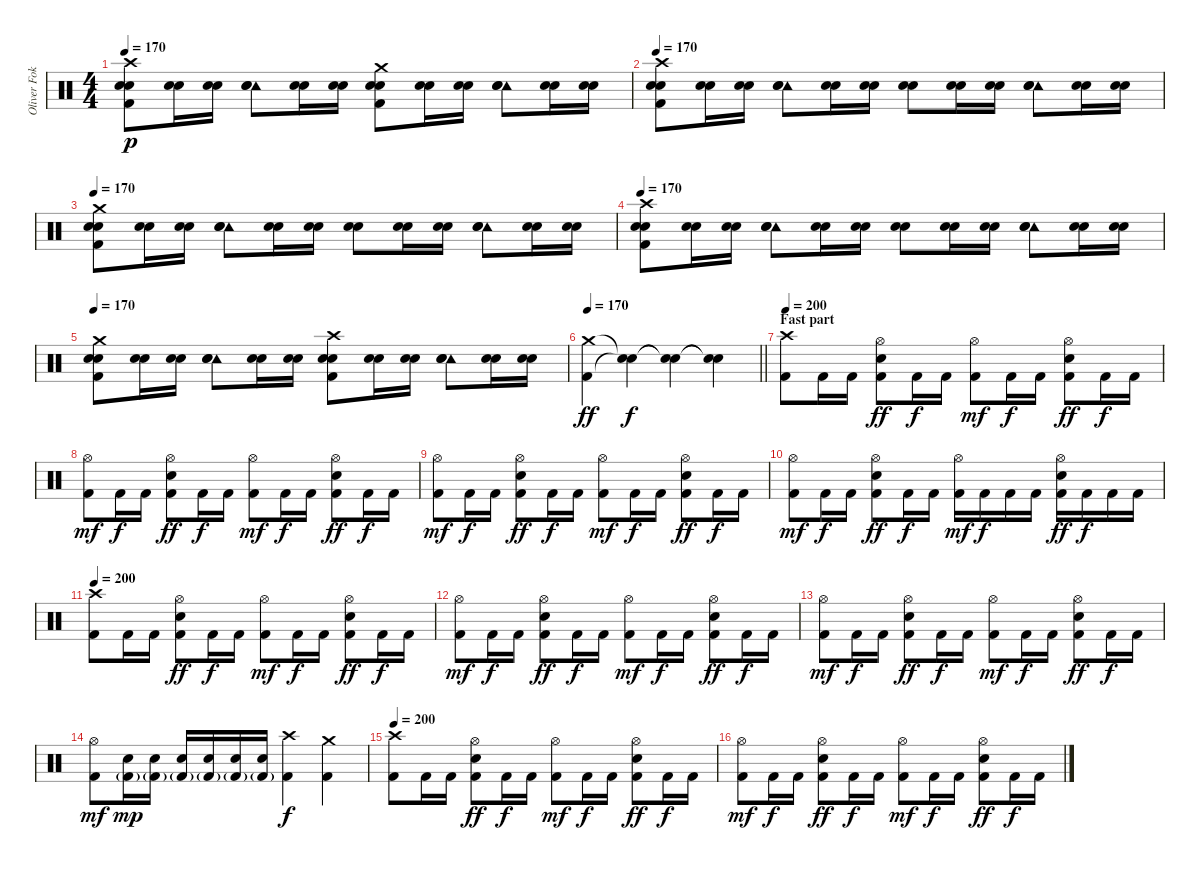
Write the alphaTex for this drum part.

\track ("Oliver Fokin" "Oliver Fok") {instrument percussion}
\staff {score}
\articulation defaults
\ts (4 4)
\tempo 170
\clef neutral
\ks c
("Crash high (hit)" "Kick (hit) 2" "Electric Snare (hit)" "Electric Snare (hit)").8{dy p} ("Electric Snare (hit)" "Electric Snare (hit)").16 ("Electric Snare (hit)" "Electric Snare (hit)").16 ("Tambourine (hit)" "Electric Snare (hit)" "Electric Snare (hit)").8 ("Electric Snare (hit)" "Electric Snare (hit)").16 ("Electric Snare (hit)" "Electric Snare (hit)").16 ("Crash medium (hit)" "Kick (hit) 2" "Electric Snare (hit)" "Electric Snare (hit)").8 ("Electric Snare (hit)" "Electric Snare (hit)").16 ("Electric Snare (hit)" "Electric Snare (hit)").16 ("Tambourine (hit)" "Electric Snare (hit)" "Electric Snare (hit)").8 ("Electric Snare (hit)" "Electric Snare (hit)").16 ("Electric Snare (hit)" "Electric Snare (hit)").16 |
\tempo 170
("Crash high (hit)" "Kick (hit) 2" "Electric Snare (hit)" "Electric Snare (hit)").8 ("Electric Snare (hit)" "Electric Snare (hit)").16 ("Electric Snare (hit)" "Electric Snare (hit)").16 ("Tambourine (hit)" "Electric Snare (hit)" "Electric Snare (hit)").8 ("Electric Snare (hit)" "Electric Snare (hit)").16 ("Electric Snare (hit)" "Electric Snare (hit)").16 ("Electric Snare (hit)" "Electric Snare (hit)").8 ("Electric Snare (hit)" "Electric Snare (hit)").16 ("Electric Snare (hit)" "Electric Snare (hit)").16 ("Tambourine (hit)" "Electric Snare (hit)" "Electric Snare (hit)").8 ("Electric Snare (hit)" "Electric Snare (hit)").16 ("Electric Snare (hit)" "Electric Snare (hit)").16 |
\tempo 170
("Crash medium (hit)" "Kick (hit) 2" "Electric Snare (hit)" "Electric Snare (hit)").8 ("Electric Snare (hit)" "Electric Snare (hit)").16 ("Electric Snare (hit)" "Electric Snare (hit)").16 ("Tambourine (hit)" "Electric Snare (hit)" "Electric Snare (hit)").8 ("Electric Snare (hit)" "Electric Snare (hit)").16 ("Electric Snare (hit)" "Electric Snare (hit)").16 ("Electric Snare (hit)" "Electric Snare (hit)").8 ("Electric Snare (hit)" "Electric Snare (hit)").16 ("Electric Snare (hit)" "Electric Snare (hit)").16 ("Tambourine (hit)" "Electric Snare (hit)" "Electric Snare (hit)").8 ("Electric Snare (hit)" "Electric Snare (hit)").16 ("Electric Snare (hit)" "Electric Snare (hit)").16 |
\tempo 170
("Crash high (hit)" "Kick (hit) 2" "Electric Snare (hit)" "Electric Snare (hit)").8 ("Electric Snare (hit)" "Electric Snare (hit)").16 ("Electric Snare (hit)" "Electric Snare (hit)").16 ("Tambourine (hit)" "Electric Snare (hit)" "Electric Snare (hit)").8 ("Electric Snare (hit)" "Electric Snare (hit)").16 ("Electric Snare (hit)" "Electric Snare (hit)").16 ("Electric Snare (hit)" "Electric Snare (hit)").8 ("Electric Snare (hit)" "Electric Snare (hit)").16 ("Electric Snare (hit)" "Electric Snare (hit)").16 ("Tambourine (hit)" "Electric Snare (hit)" "Electric Snare (hit)").8 ("Electric Snare (hit)" "Electric Snare (hit)").16 ("Electric Snare (hit)" "Electric Snare (hit)").16 |
\tempo 170
("Crash medium (hit)" "Kick (hit) 2" "Electric Snare (hit)" "Electric Snare (hit)").8 ("Electric Snare (hit)" "Electric Snare (hit)").16 ("Electric Snare (hit)" "Electric Snare (hit)").16 ("Tambourine (hit)" "Electric Snare (hit)" "Electric Snare (hit)").8 ("Electric Snare (hit)" "Electric Snare (hit)").16 ("Electric Snare (hit)" "Electric Snare (hit)").16 ("Crash high (hit)" "Kick (hit) 2" "Electric Snare (hit)" "Electric Snare (hit)").8 ("Electric Snare (hit)" "Electric Snare (hit)").16 ("Electric Snare (hit)" "Electric Snare (hit)").16 ("Tambourine (hit)" "Electric Snare (hit)" "Electric Snare (hit)").8 ("Electric Snare (hit)" "Electric Snare (hit)").16 ("Electric Snare (hit)" "Electric Snare (hit)").16 |
\tempo 170
\barLineRight lightlight
("Crash medium (hit)" "Kick (hit) 2").4{dy ff} ("Snare (hit)"{t} "Snare (hit)"{t}).4{dy f} ("Snare (hit)"{t} "Snare (hit)"{t}).4 ("Snare (hit)"{t} "Snare (hit)"{t}).4 |
\section ("" "Fast part")
\tempo 200
("Crash high (hit)" "Kick (hit) 2").8 "Kick (hit) 2".16 "Kick (hit) 2".16 ("Hi-Hat (open)" "Electric Snare (hit)" "Kick (hit) 2").8{dy ff} "Kick (hit) 2".16{dy f} "Kick (hit) 2".16 ("Hi-Hat (open)" "Kick (hit) 2").8{dy mf} "Kick (hit) 2".16{dy f} "Kick (hit) 2".16 ("Hi-Hat (open)" "Electric Snare (hit)" "Kick (hit) 2").8{dy ff} "Kick (hit) 2".16{dy f} "Kick (hit) 2".16 |
("Hi-Hat (open)" "Kick (hit) 2").8{dy mf} "Kick (hit) 2".16{dy f} "Kick (hit) 2".16 ("Hi-Hat (open)" "Electric Snare (hit)" "Kick (hit) 2").8{dy ff} "Kick (hit) 2".16{dy f} "Kick (hit) 2".16 ("Hi-Hat (open)" "Kick (hit) 2").8{dy mf} "Kick (hit) 2".16{dy f} "Kick (hit) 2".16 ("Hi-Hat (open)" "Electric Snare (hit)" "Kick (hit) 2").8{dy ff} "Kick (hit) 2".16{dy f} "Kick (hit) 2".16 |
("Hi-Hat (open)" "Kick (hit) 2").8{dy mf} "Kick (hit) 2".16{dy f} "Kick (hit) 2".16 ("Hi-Hat (open)" "Electric Snare (hit)" "Kick (hit) 2").8{dy ff} "Kick (hit) 2".16{dy f} "Kick (hit) 2".16 ("Hi-Hat (open)" "Kick (hit) 2").8{dy mf} "Kick (hit) 2".16{dy f} "Kick (hit) 2".16 ("Hi-Hat (open)" "Electric Snare (hit)" "Kick (hit) 2").8{dy ff} "Kick (hit) 2".16{dy f} "Kick (hit) 2".16 |
("Hi-Hat (open)" "Kick (hit) 2").8{dy mf} "Kick (hit) 2".16{dy f} "Kick (hit) 2".16 ("Hi-Hat (open)" "Electric Snare (hit)" "Kick (hit) 2").8{dy ff} "Kick (hit) 2".16{dy f} "Kick (hit) 2".16 ("Hi-Hat (open)" "Kick (hit) 2").16{dy mf} "Kick (hit) 2".16{dy f} "Kick (hit) 2".16 "Kick (hit) 2".16 ("Hi-Hat (open)" "Electric Snare (hit)" "Kick (hit) 2").16{dy ff} "Kick (hit) 2".16{dy f} "Kick (hit) 2".16 "Kick (hit) 2".16 |
\tempo 200
("Crash high (hit)" "Kick (hit) 2").8 "Kick (hit) 2".16 "Kick (hit) 2".16 ("Hi-Hat (open)" "Electric Snare (hit)" "Kick (hit) 2").8{dy ff} "Kick (hit) 2".16{dy f} "Kick (hit) 2".16 ("Hi-Hat (open)" "Kick (hit) 2").8{dy mf} "Kick (hit) 2".16{dy f} "Kick (hit) 2".16 ("Hi-Hat (open)" "Electric Snare (hit)" "Kick (hit) 2").8{dy ff} "Kick (hit) 2".16{dy f} "Kick (hit) 2".16 |
("Hi-Hat (open)" "Kick (hit) 2").8{dy mf} "Kick (hit) 2".16{dy f} "Kick (hit) 2".16 ("Hi-Hat (open)" "Electric Snare (hit)" "Kick (hit) 2").8{dy ff} "Kick (hit) 2".16{dy f} "Kick (hit) 2".16 ("Hi-Hat (open)" "Kick (hit) 2").8{dy mf} "Kick (hit) 2".16{dy f} "Kick (hit) 2".16 ("Hi-Hat (open)" "Electric Snare (hit)" "Kick (hit) 2").8{dy ff} "Kick (hit) 2".16{dy f} "Kick (hit) 2".16 |
("Hi-Hat (open)" "Kick (hit) 2").8{dy mf} "Kick (hit) 2".16{dy f} "Kick (hit) 2".16 ("Hi-Hat (open)" "Electric Snare (hit)" "Kick (hit) 2").8{dy ff} "Kick (hit) 2".16{dy f} "Kick (hit) 2".16 ("Hi-Hat (open)" "Kick (hit) 2").8{dy mf} "Kick (hit) 2".16{dy f} "Kick (hit) 2".16 ("Hi-Hat (open)" "Electric Snare (hit)" "Kick (hit) 2").8{dy ff} "Kick (hit) 2".16{dy f} "Kick (hit) 2".16 |
("Hi-Hat (open)" "Kick (hit) 2").8{dy mf} ("Electric Snare (hit)" "Kick (hit) 2"{g}).16{dy mp} ("Electric Snare (hit)" "Kick (hit) 2"{g}).16 ("Electric Snare (hit)" "Kick (hit) 2"{g}).16 ("Electric Snare (hit)" "Kick (hit) 2"{g}).16 ("Electric Snare (hit)" "Kick (hit) 2"{g}).16 ("Electric Snare (hit)" "Kick (hit) 2"{g}).16 ("Crash high (hit)" "Kick (hit) 2").4{dy f} ("Crash medium (hit)" "Kick (hit) 2").4 |
\tempo 200
("Crash high (hit)" "Kick (hit) 2").8 "Kick (hit) 2".16 "Kick (hit) 2".16 ("Hi-Hat (open)" "Electric Snare (hit)" "Kick (hit) 2").8{dy ff} "Kick (hit) 2".16{dy f} "Kick (hit) 2".16 ("Hi-Hat (open)" "Kick (hit) 2").8{dy mf} "Kick (hit) 2".16{dy f} "Kick (hit) 2".16 ("Hi-Hat (open)" "Electric Snare (hit)" "Kick (hit) 2").8{dy ff} "Kick (hit) 2".16{dy f} "Kick (hit) 2".16 |
("Hi-Hat (open)" "Kick (hit) 2").8{dy mf} "Kick (hit) 2".16{dy f} "Kick (hit) 2".16 ("Hi-Hat (open)" "Electric Snare (hit)" "Kick (hit) 2").8{dy ff} "Kick (hit) 2".16{dy f} "Kick (hit) 2".16 ("Hi-Hat (open)" "Kick (hit) 2").8{dy mf} "Kick (hit) 2".16{dy f} "Kick (hit) 2".16 ("Hi-Hat (open)" "Electric Snare (hit)" "Kick (hit) 2").8{dy ff} "Kick (hit) 2".16{dy f} "Kick (hit) 2".16
